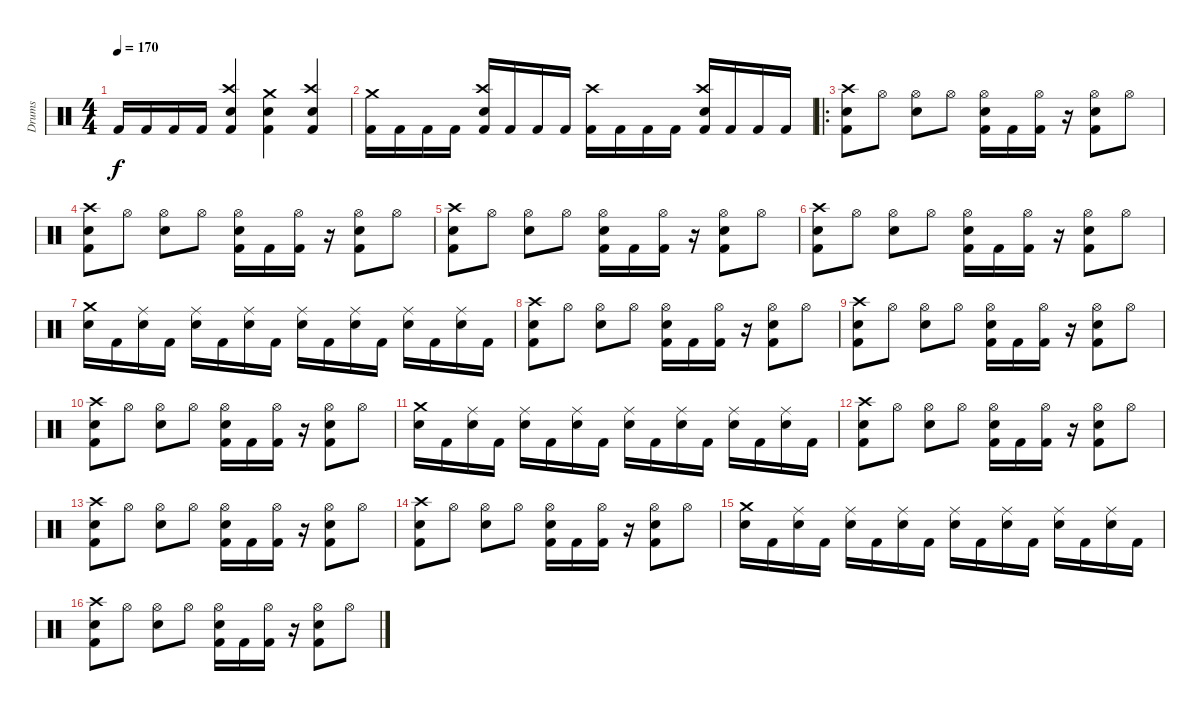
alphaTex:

\track ("Drums" "Drums") {instrument percussion}
\staff {score}
\articulation defaults
\ts (4 4)
\tempo 170
\clef neutral
\ks c "Kick (hit) 2".16{dy f} "Kick (hit) 2".16 "Kick (hit) 2".16 "Kick (hit) 2".16
("Crash high (hit)" "Electric Snare (hit)" "Kick (hit) 2").4 ("Crash medium (hit)" "Electric Snare (hit)" "Kick (hit) 2").4 ("Crash high (hit)" "Electric Snare (hit)" "Kick (hit) 2").4 |
("Crash medium (hit)" "Kick (hit) 2").16 "Kick (hit) 2".16 "Kick (hit) 2".16 "Kick (hit) 2".16 ("Crash high (hit)" "Electric Snare (hit)" "Kick (hit) 2").16 "Kick (hit) 2".16 "Kick (hit) 2".16 "Kick (hit) 2".16 ("Crash high (hit)" "Kick (hit) 2").16 "Kick (hit) 2".16 "Kick (hit) 2".16 "Kick (hit) 2".16 ("Crash high (hit)" "Electric Snare (hit)" "Kick (hit) 2").16 "Kick (hit) 2".16 "Kick (hit) 2".16 "Kick (hit) 2".16 |
\ro
("Crash high (hit)" "Electric Snare (hit)" "Kick (hit) 2").8 "Hi-Hat (open)".8 ("Hi-Hat (open)" "Electric Snare (hit)").8 "Hi-Hat (open)".8 ("Hi-Hat (open)" "Electric Snare (hit)" "Kick (hit) 2").16 "Kick (hit) 2".16 ("Hi-Hat (open)" "Kick (hit) 2").16 r.16 ("Hi-Hat (open)" "Electric Snare (hit)" "Kick (hit) 2").8 "Hi-Hat (open)".8 |
("Crash high (hit)" "Electric Snare (hit)" "Kick (hit) 2").8 "Hi-Hat (open)".8 ("Hi-Hat (open)" "Electric Snare (hit)").8 "Hi-Hat (open)".8 ("Hi-Hat (open)" "Electric Snare (hit)" "Kick (hit) 2").16 "Kick (hit) 2".16 ("Hi-Hat (open)" "Kick (hit) 2").16 r.16 ("Hi-Hat (open)" "Electric Snare (hit)" "Kick (hit) 2").8 "Hi-Hat (open)".8 |
("Crash high (hit)" "Electric Snare (hit)" "Kick (hit) 2").8 "Hi-Hat (open)".8 ("Hi-Hat (open)" "Electric Snare (hit)").8 "Hi-Hat (open)".8 ("Hi-Hat (open)" "Electric Snare (hit)" "Kick (hit) 2").16 "Kick (hit) 2".16 ("Hi-Hat (open)" "Kick (hit) 2").16 r.16 ("Hi-Hat (open)" "Electric Snare (hit)" "Kick (hit) 2").8 "Hi-Hat (open)".8 |
("Crash high (hit)" "Electric Snare (hit)" "Kick (hit) 2").8 "Hi-Hat (open)".8 ("Hi-Hat (open)" "Electric Snare (hit)").8 "Hi-Hat (open)".8 ("Hi-Hat (open)" "Electric Snare (hit)" "Kick (hit) 2").16 "Kick (hit) 2".16 ("Hi-Hat (open)" "Kick (hit) 2").16 r.16 ("Hi-Hat (open)" "Electric Snare (hit)" "Kick (hit) 2").8 "Hi-Hat (open)".8 |
("Crash medium (hit)" "Electric Snare (hit)").16 "Kick (hit) 2".16 ("Ride (middle)" "Electric Snare (hit)").16 "Kick (hit) 2".16 ("Ride (middle)" "Electric Snare (hit)").16 "Kick (hit) 2".16 ("Ride (middle)" "Electric Snare (hit)").16 "Kick (hit) 2".16 ("Ride (middle)" "Electric Snare (hit)").16 "Kick (hit) 2".16 ("Ride (middle)" "Electric Snare (hit)").16 "Kick (hit) 2".16 ("Ride (middle)" "Electric Snare (hit)").16 "Kick (hit) 2".16 ("Ride (middle)" "Electric Snare (hit)").16 "Kick (hit) 2".16 |
("Crash high (hit)" "Electric Snare (hit)" "Kick (hit) 2").8 "Hi-Hat (open)".8 ("Hi-Hat (open)" "Electric Snare (hit)").8 "Hi-Hat (open)".8 ("Hi-Hat (open)" "Electric Snare (hit)" "Kick (hit) 2").16 "Kick (hit) 2".16 ("Hi-Hat (open)" "Kick (hit) 2").16 r.16 ("Hi-Hat (open)" "Electric Snare (hit)" "Kick (hit) 2").8 "Hi-Hat (open)".8 |
("Crash high (hit)" "Electric Snare (hit)" "Kick (hit) 2").8 "Hi-Hat (open)".8 ("Hi-Hat (open)" "Electric Snare (hit)").8 "Hi-Hat (open)".8 ("Hi-Hat (open)" "Electric Snare (hit)" "Kick (hit) 2").16 "Kick (hit) 2".16 ("Hi-Hat (open)" "Kick (hit) 2").16 r.16 ("Hi-Hat (open)" "Electric Snare (hit)" "Kick (hit) 2").8 "Hi-Hat (open)".8 |
("Crash high (hit)" "Electric Snare (hit)" "Kick (hit) 2").8 "Hi-Hat (open)".8 ("Hi-Hat (open)" "Electric Snare (hit)").8 "Hi-Hat (open)".8 ("Hi-Hat (open)" "Electric Snare (hit)" "Kick (hit) 2").16 "Kick (hit) 2".16 ("Hi-Hat (open)" "Kick (hit) 2").16 r.16 ("Hi-Hat (open)" "Electric Snare (hit)" "Kick (hit) 2").8 "Hi-Hat (open)".8 |
("Crash medium (hit)" "Electric Snare (hit)").16 "Kick (hit) 2".16 ("Ride (middle)" "Electric Snare (hit)").16 "Kick (hit) 2".16 ("Ride (middle)" "Electric Snare (hit)").16 "Kick (hit) 2".16 ("Ride (middle)" "Electric Snare (hit)").16 "Kick (hit) 2".16 ("Ride (middle)" "Electric Snare (hit)").16 "Kick (hit) 2".16 ("Ride (middle)" "Electric Snare (hit)").16 "Kick (hit) 2".16 ("Ride (middle)" "Electric Snare (hit)").16 "Kick (hit) 2".16 ("Ride (middle)" "Electric Snare (hit)").16 "Kick (hit) 2".16 |
("Crash high (hit)" "Electric Snare (hit)" "Kick (hit) 2").8 "Hi-Hat (open)".8 ("Hi-Hat (open)" "Electric Snare (hit)").8 "Hi-Hat (open)".8 ("Hi-Hat (open)" "Electric Snare (hit)" "Kick (hit) 2").16 "Kick (hit) 2".16 ("Hi-Hat (open)" "Kick (hit) 2").16 r.16 ("Hi-Hat (open)" "Electric Snare (hit)" "Kick (hit) 2").8 "Hi-Hat (open)".8 |
("Crash high (hit)" "Electric Snare (hit)" "Kick (hit) 2").8 "Hi-Hat (open)".8 ("Hi-Hat (open)" "Electric Snare (hit)").8 "Hi-Hat (open)".8 ("Hi-Hat (open)" "Electric Snare (hit)" "Kick (hit) 2").16 "Kick (hit) 2".16 ("Hi-Hat (open)" "Kick (hit) 2").16 r.16 ("Hi-Hat (open)" "Electric Snare (hit)" "Kick (hit) 2").8 "Hi-Hat (open)".8 |
("Crash high (hit)" "Electric Snare (hit)" "Kick (hit) 2").8 "Hi-Hat (open)".8 ("Hi-Hat (open)" "Electric Snare (hit)").8 "Hi-Hat (open)".8 ("Hi-Hat (open)" "Electric Snare (hit)" "Kick (hit) 2").16 "Kick (hit) 2".16 ("Hi-Hat (open)" "Kick (hit) 2").16 r.16 ("Hi-Hat (open)" "Electric Snare (hit)" "Kick (hit) 2").8 "Hi-Hat (open)".8 |
("Crash medium (hit)" "Electric Snare (hit)").16 "Kick (hit) 2".16 ("Ride (middle)" "Electric Snare (hit)").16 "Kick (hit) 2".16 ("Ride (middle)" "Electric Snare (hit)").16 "Kick (hit) 2".16 ("Ride (middle)" "Electric Snare (hit)").16 "Kick (hit) 2".16 ("Ride (middle)" "Electric Snare (hit)").16 "Kick (hit) 2".16 ("Ride (middle)" "Electric Snare (hit)").16 "Kick (hit) 2".16 ("Ride (middle)" "Electric Snare (hit)").16 "Kick (hit) 2".16 ("Ride (middle)" "Electric Snare (hit)").16 "Kick (hit) 2".16 |
("Crash high (hit)" "Electric Snare (hit)" "Kick (hit) 2").8 "Hi-Hat (open)".8 ("Hi-Hat (open)" "Electric Snare (hit)").8 "Hi-Hat (open)".8 ("Hi-Hat (open)" "Electric Snare (hit)" "Kick (hit) 2").16 "Kick (hit) 2".16 ("Hi-Hat (open)" "Kick (hit) 2").16 r.16 ("Hi-Hat (open)" "Electric Snare (hit)" "Kick (hit) 2").8 "Hi-Hat (open)".8
